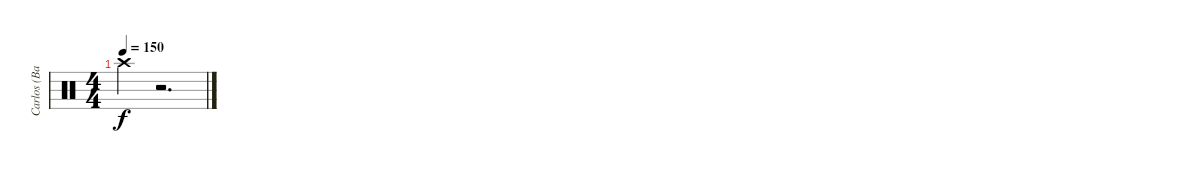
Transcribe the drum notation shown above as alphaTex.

\track ("Carlos (Batería)" "Carlos (Ba") {instrument percussion}
\staff {score}
\articulation defaults
\ts (4 4)
\tempo 150
\clef neutral
\ks c "Crash high (hit)".4{dy f}
r.2{d}
